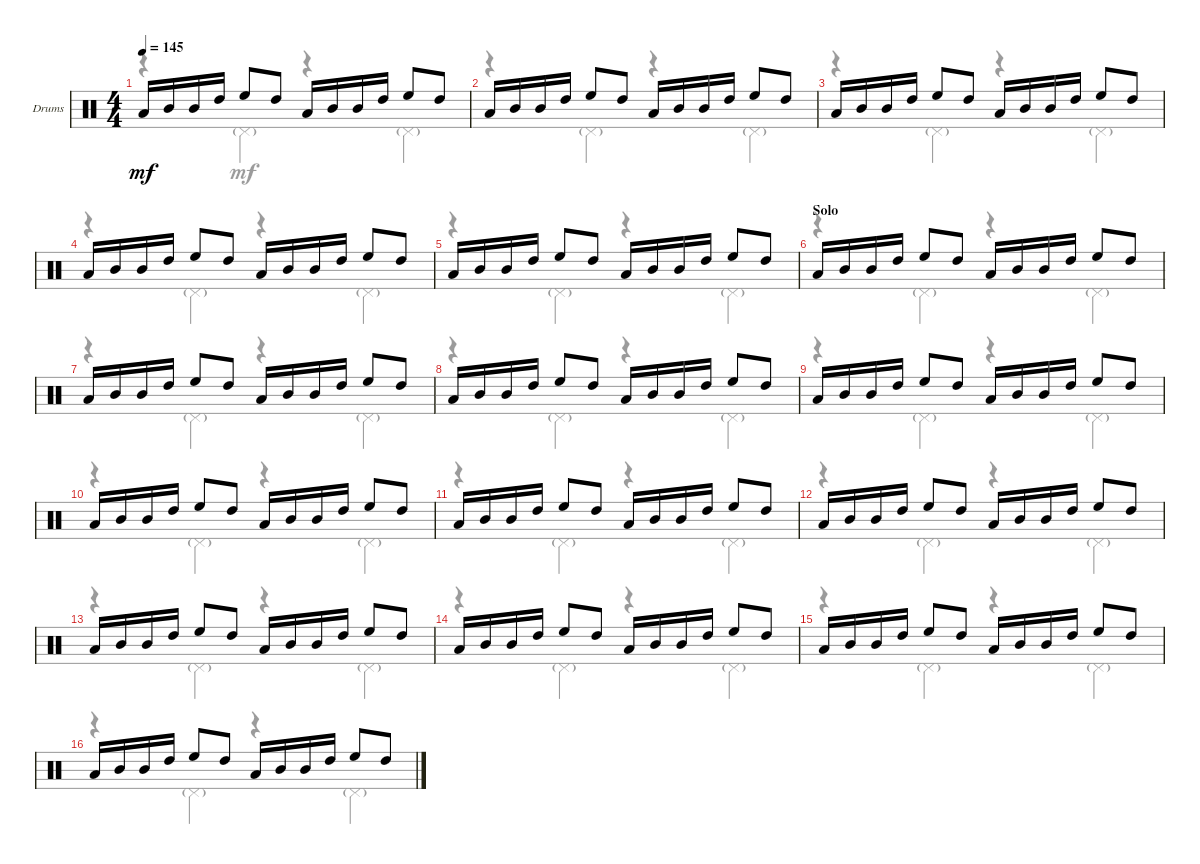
\defaultSystemsLayout 4
\bracketExtendMode groupsimilarinstruments
\firstSystemTrackNameOrientation horizontal
\otherSystemsTrackNameOrientation horizontal
\track ("Drumkit" "Drums") {instrument percussion}
\staff {score}
\articulation defaults
\voice
\ts (4 4)
\tempo 145
\clef neutral
\ks c "Low Tom (hit)".16{dy mf} "Mid Tom (hit)".16 "Mid Tom (hit)".16 "High Tom (hit)".16 "High Floor Tom (hit)".8 "High Tom (hit)".8 "Low Tom (hit)".16 "Mid Tom (hit)".16 "Mid Tom (hit)".16 "High Tom (hit)".16 "High Floor Tom (hit)".8 "High Tom (hit)".8
|
"Low Tom (hit)".16 "Mid Tom (hit)".16 "Mid Tom (hit)".16 "High Tom (hit)".16 "High Floor Tom (hit)".8 "High Tom (hit)".8 "Low Tom (hit)".16 "Mid Tom (hit)".16 "Mid Tom (hit)".16 "High Tom (hit)".16 "High Floor Tom (hit)".8 "High Tom (hit)".8 |
"Low Tom (hit)".16 "Mid Tom (hit)".16 "Mid Tom (hit)".16 "High Tom (hit)".16 "High Floor Tom (hit)".8 "High Tom (hit)".8 "Low Tom (hit)".16 "Mid Tom (hit)".16 "Mid Tom (hit)".16 "High Tom (hit)".16 "High Floor Tom (hit)".8 "High Tom (hit)".8 |
"Low Tom (hit)".16 "Mid Tom (hit)".16 "Mid Tom (hit)".16 "High Tom (hit)".16 "High Floor Tom (hit)".8 "High Tom (hit)".8 "Low Tom (hit)".16 "Mid Tom (hit)".16 "Mid Tom (hit)".16 "High Tom (hit)".16 "High Floor Tom (hit)".8 "High Tom (hit)".8 |
"Low Tom (hit)".16 "Mid Tom (hit)".16 "Mid Tom (hit)".16 "High Tom (hit)".16 "High Floor Tom (hit)".8 "High Tom (hit)".8 "Low Tom (hit)".16 "Mid Tom (hit)".16 "Mid Tom (hit)".16 "High Tom (hit)".16 "High Floor Tom (hit)".8 "High Tom (hit)".8 |
\section ("" "Solo")
"Low Tom (hit)".16 "Mid Tom (hit)".16 "Mid Tom (hit)".16 "High Tom (hit)".16 "High Floor Tom (hit)".8 "High Tom (hit)".8 "Low Tom (hit)".16 "Mid Tom (hit)".16 "Mid Tom (hit)".16 "High Tom (hit)".16 "High Floor Tom (hit)".8 "High Tom (hit)".8 |
"Low Tom (hit)".16 "Mid Tom (hit)".16 "Mid Tom (hit)".16 "High Tom (hit)".16 "High Floor Tom (hit)".8 "High Tom (hit)".8 "Low Tom (hit)".16 "Mid Tom (hit)".16 "Mid Tom (hit)".16 "High Tom (hit)".16 "High Floor Tom (hit)".8 "High Tom (hit)".8 |
"Low Tom (hit)".16 "Mid Tom (hit)".16 "Mid Tom (hit)".16 "High Tom (hit)".16 "High Floor Tom (hit)".8 "High Tom (hit)".8 "Low Tom (hit)".16 "Mid Tom (hit)".16 "Mid Tom (hit)".16 "High Tom (hit)".16 "High Floor Tom (hit)".8 "High Tom (hit)".8 |
"Low Tom (hit)".16 "Mid Tom (hit)".16 "Mid Tom (hit)".16 "High Tom (hit)".16 "High Floor Tom (hit)".8 "High Tom (hit)".8 "Low Tom (hit)".16 "Mid Tom (hit)".16 "Mid Tom (hit)".16 "High Tom (hit)".16 "High Floor Tom (hit)".8 "High Tom (hit)".8 |
"Low Tom (hit)".16 "Mid Tom (hit)".16 "Mid Tom (hit)".16 "High Tom (hit)".16 "High Floor Tom (hit)".8 "High Tom (hit)".8 "Low Tom (hit)".16 "Mid Tom (hit)".16 "Mid Tom (hit)".16 "High Tom (hit)".16 "High Floor Tom (hit)".8 "High Tom (hit)".8 |
"Low Tom (hit)".16 "Mid Tom (hit)".16 "Mid Tom (hit)".16 "High Tom (hit)".16 "High Floor Tom (hit)".8 "High Tom (hit)".8 "Low Tom (hit)".16 "Mid Tom (hit)".16 "Mid Tom (hit)".16 "High Tom (hit)".16 "High Floor Tom (hit)".8 "High Tom (hit)".8 |
"Low Tom (hit)".16 "Mid Tom (hit)".16 "Mid Tom (hit)".16 "High Tom (hit)".16 "High Floor Tom (hit)".8 "High Tom (hit)".8 "Low Tom (hit)".16 "Mid Tom (hit)".16 "Mid Tom (hit)".16 "High Tom (hit)".16 "High Floor Tom (hit)".8 "High Tom (hit)".8 |
"Low Tom (hit)".16 "Mid Tom (hit)".16 "Mid Tom (hit)".16 "High Tom (hit)".16 "High Floor Tom (hit)".8 "High Tom (hit)".8 "Low Tom (hit)".16 "Mid Tom (hit)".16 "Mid Tom (hit)".16 "High Tom (hit)".16 "High Floor Tom (hit)".8 "High Tom (hit)".8 |
"Low Tom (hit)".16 "Mid Tom (hit)".16 "Mid Tom (hit)".16 "High Tom (hit)".16 "High Floor Tom (hit)".8 "High Tom (hit)".8 "Low Tom (hit)".16 "Mid Tom (hit)".16 "Mid Tom (hit)".16 "High Tom (hit)".16 "High Floor Tom (hit)".8 "High Tom (hit)".8 |
"Low Tom (hit)".16 "Mid Tom (hit)".16 "Mid Tom (hit)".16 "High Tom (hit)".16 "High Floor Tom (hit)".8 "High Tom (hit)".8 "Low Tom (hit)".16 "Mid Tom (hit)".16 "Mid Tom (hit)".16 "High Tom (hit)".16 "High Floor Tom (hit)".8 "High Tom (hit)".8 |
"Low Tom (hit)".16 "Mid Tom (hit)".16 "Mid Tom (hit)".16 "High Tom (hit)".16 "High Floor Tom (hit)".8 "High Tom (hit)".8 "Low Tom (hit)".16 "Mid Tom (hit)".16 "Mid Tom (hit)".16 "High Tom (hit)".16 "High Floor Tom (hit)".8 "High Tom (hit)".8
\voice
\clef neutral
\ottava regular
\simile none
\ks c
r.4{dy mf} "Pedal Hi-Hat (hit)"{g}.4 r.4 "Pedal Hi-Hat (hit)"{g}.4 |
r.4 "Pedal Hi-Hat (hit)"{g}.4 r.4 "Pedal Hi-Hat (hit)"{g}.4 |
r.4 "Pedal Hi-Hat (hit)"{g}.4 r.4 "Pedal Hi-Hat (hit)"{g}.4 |
r.4 "Pedal Hi-Hat (hit)"{g}.4 r.4 "Pedal Hi-Hat (hit)"{g}.4 |
r.4 "Pedal Hi-Hat (hit)"{g}.4 r.4 "Pedal Hi-Hat (hit)"{g}.4 |
r.4 "Pedal Hi-Hat (hit)"{g}.4 r.4 "Pedal Hi-Hat (hit)"{g}.4 |
r.4 "Pedal Hi-Hat (hit)"{g}.4 r.4 "Pedal Hi-Hat (hit)"{g}.4 |
r.4 "Pedal Hi-Hat (hit)"{g}.4 r.4 "Pedal Hi-Hat (hit)"{g}.4 |
r.4 "Pedal Hi-Hat (hit)"{g}.4 r.4 "Pedal Hi-Hat (hit)"{g}.4 |
r.4 "Pedal Hi-Hat (hit)"{g}.4 r.4 "Pedal Hi-Hat (hit)"{g}.4 |
r.4 "Pedal Hi-Hat (hit)"{g}.4 r.4 "Pedal Hi-Hat (hit)"{g}.4 |
r.4 "Pedal Hi-Hat (hit)"{g}.4 r.4 "Pedal Hi-Hat (hit)"{g}.4 |
r.4 "Pedal Hi-Hat (hit)"{g}.4 r.4 "Pedal Hi-Hat (hit)"{g}.4 |
r.4 "Pedal Hi-Hat (hit)"{g}.4 r.4 "Pedal Hi-Hat (hit)"{g}.4 |
r.4 "Pedal Hi-Hat (hit)"{g}.4 r.4 "Pedal Hi-Hat (hit)"{g}.4 |
r.4 "Pedal Hi-Hat (hit)"{g}.4 r.4 "Pedal Hi-Hat (hit)"{g}.4
